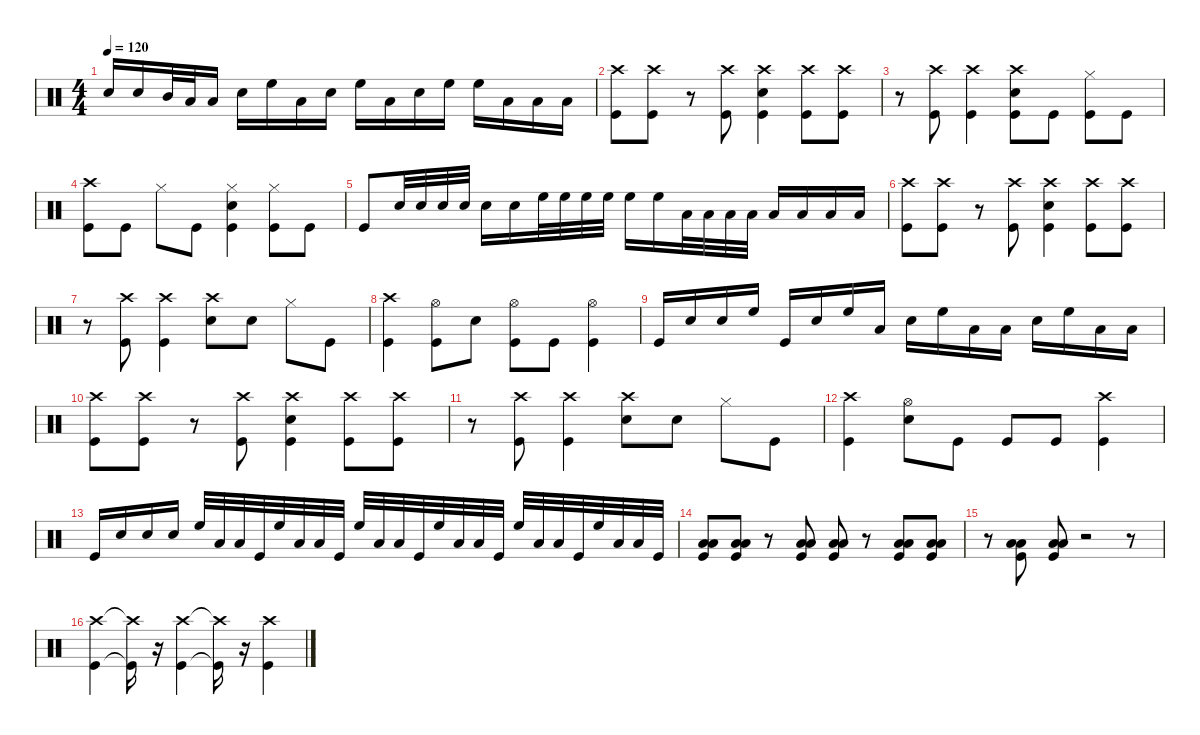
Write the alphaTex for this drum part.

\defaultSystemsLayout 4
\hideDynamics
\bracketExtendMode nobrackets
\singleTrackTrackNamePolicy hidden
\multiTrackTrackNamePolicy hidden
\firstSystemTrackNameMode fullname
\firstSystemTrackNameOrientation horizontal
\otherSystemsTrackNameOrientation horizontal
\track ("Drums" "drm.") {instrument percussion}
\staff {score}
\articulation defaults
\ts (4 4)
\tempo 120
\clef neutral
\ks c "Snare (hit) 2".16{dy f beam Up} "Snare (hit) 2".16{beam Up} "Mid Tom (hit)".32{beam Up} "Low Tom (hit)".32{beam Up} "Low Floor Tom (hit)".16{beam Up} "Snare (hit) 2".16{beam Down} "High Floor Tom (hit)".16{beam Down} "Low Tom (hit)".16{beam Down} "Snare (hit) 2".16{beam Down} "High Floor Tom (hit)".16{beam Down} "Low Tom (hit)".16{beam Down} "Snare (hit) 2".16{beam Down} "High Floor Tom (hit)".16{beam Down} "High Floor Tom (hit)".16{beam Down} "Low Tom (hit)".16{beam Down} "Low Floor Tom (hit)".16{beam Down} "Low Floor Tom (hit)".16{beam Down}
|
("Crash high (hit)" "Kick (hit)").8{beam Down} ("Crash high (hit)" "Kick (hit)").8{beam Down} r.8{beam Down} ("Crash high (hit)" "Kick (hit)").8{beam Down} ("Snare (hit) 2" "Crash high (hit)" "Kick (hit)").4{beam Down} ("Crash high (hit)" "Kick (hit)").8{beam Down} ("Crash high (hit)" "Kick (hit)").8{beam Down} |
r.8{beam Down} ("Crash high (hit)" "Kick (hit)").8{beam Down} ("Crash high (hit)" "Kick (hit)").4{beam Down} ("Snare (hit) 2" "Crash high (hit)" "Kick (hit)").8{beam Down} "Kick (hit)".8{beam Down} ("Hi-Hat (closed)" "Kick (hit)").8{beam Down} "Kick (hit)".8{beam Down} |
("Kick (hit)" "Crash high (hit)").8{beam Down} "Kick (hit)".8{beam Down} "Hi-Hat (closed)".8{beam Down} "Kick (hit)".8{beam Down} ("Kick (hit)" "Snare (hit) 2" "Hi-Hat (closed)").4{beam Down} ("Kick (hit)" "Hi-Hat (closed)").8{beam Down} "Kick (hit)".8{beam Down} |
"Kick (hit)".8{beam Up} "Snare (hit) 2".32{beam Up} "Snare (hit) 2".32{beam Up} "Snare (hit) 2".32{beam Up} "Snare (hit) 2".32{beam Up} "Snare (hit) 2".16{beam Down} "Snare (hit) 2".16{beam Down} "High Floor Tom (hit)".32{beam Down} "High Floor Tom (hit)".32{beam Down} "High Floor Tom (hit)".32{beam Down} "High Floor Tom (hit)".32{beam Down} "High Floor Tom (hit)".16{beam Down} "High Floor Tom (hit)".16{beam Down} "Low Tom (hit)".32{beam Down} "Low Tom (hit)".32{beam Down} "Low Tom (hit)".32{beam Down} "Low Tom (hit)".32{beam Down} "Low Tom (hit)".16{beam Up} "Low Tom (hit)".16{beam Up} "Low Floor Tom (hit)".16{beam Up} "Low Floor Tom (hit)".16{beam Up} |
("Crash high (hit)" "Kick (hit)").8{beam Down} ("Crash high (hit)" "Kick (hit)").8{beam Down} r.8{beam Down} ("Crash high (hit)" "Kick (hit)").8{beam Down} ("Snare (hit) 2" "Crash high (hit)" "Kick (hit)").4{beam Down} ("Crash high (hit)" "Kick (hit)").8{beam Down} ("Crash high (hit)" "Kick (hit)").8{beam Down} |
r.8{beam Down} ("Crash high (hit)" "Kick (hit)").8{beam Down} ("Crash high (hit)" "Kick (hit)").4{beam Down} ("Snare (hit) 2" "Crash high (hit)").8{beam Down} "Snare (hit) 2".8{beam Down} "Hi-Hat (closed)".8{beam Down} "Kick (hit)".8{beam Down} |
("Kick (hit)" "Crash high (hit)").4{beam Down} ("Kick (hit)" "Hi-Hat (open)").8{beam Down} "Snare (hit) 2".8{beam Down} ("Kick (hit)" "Hi-Hat (open)").8{beam Down} "Kick (hit)".8{beam Down} ("Hi-Hat (open)" "Kick (hit)").4{beam Down} |
"Kick (hit)".16{beam Up} "Snare (hit) 2".16{beam Up} "Snare (hit) 2".16{beam Up} "High Floor Tom (hit)".16{beam Up} "Kick (hit)".16{beam Up} "Snare (hit) 2".16{beam Up} "High Floor Tom (hit)".16{beam Up} "Low Tom (hit)".16{beam Up} "Snare (hit) 2".16{beam Down} "High Floor Tom (hit)".16{beam Down} "Low Tom (hit)".16{beam Down} "Low Floor Tom (hit)".16{beam Down} "Snare (hit) 2".16{beam Down} "High Floor Tom (hit)".16{beam Down} "Low Tom (hit)".16{beam Down} "Low Floor Tom (hit)".16{beam Down} |
("Kick (hit)" "Crash high (hit)").8{beam Down} ("Kick (hit)" "Crash high (hit)").8{beam Down} r.8{beam Down} ("Kick (hit)" "Crash high (hit)").8{beam Down} ("Kick (hit)" "Snare (hit) 2" "Crash high (hit)").4{beam Down} ("Kick (hit)" "Crash high (hit)").8{beam Down} ("Kick (hit)" "Crash high (hit)").8{beam Down} |
r.8{beam Down} ("Kick (hit)" "Crash high (hit)").8{beam Down} ("Kick (hit)" "Crash high (hit)").4{beam Down} ("Snare (hit) 2" "Crash high (hit)").8{beam Down} "Snare (hit) 2".8{beam Down} "Hi-Hat (closed)".8{beam Down} "Kick (hit)".8{beam Down} |
("Crash high (hit)" "Kick (hit)").4{beam Down} ("Snare (hit) 2" "Hi-Hat (open)").8{beam Down} "Kick (hit)".8{beam Down} "Kick (hit)".8{beam Up} "Kick (hit)".8{beam Up} ("Kick (hit)" "Crash high (hit)").4{beam Down} |
"Kick (hit)".16{beam Up} "Snare (hit) 2".16{beam Up} "Snare (hit) 2".16{beam Up} "Snare (hit) 2".16{beam Up} "High Floor Tom (hit)".32{beam Up} "Low Tom (hit)".32{beam Up} "Low Floor Tom (hit)".32{beam Up} "Kick (hit)".32{beam Up} "High Floor Tom (hit)".32{beam Up} "Low Tom (hit)".32{beam Up} "Low Floor Tom (hit)".32{beam Up} "Kick (hit)".32{beam Up} "High Floor Tom (hit)".32{beam Up} "Low Tom (hit)".32{beam Up} "Low Floor Tom (hit)".32{beam Up} "Kick (hit)".32{beam Up} "High Floor Tom (hit)".32{beam Up} "Low Tom (hit)".32{beam Up} "Low Floor Tom (hit)".32{beam Up} "Kick (hit)".32{beam Up} "High Floor Tom (hit)".32{beam Up} "Low Tom (hit)".32{beam Up} "Low Floor Tom (hit)".32{beam Up} "Kick (hit)".32{beam Up} "High Floor Tom (hit)".32{beam Up} "Low Tom (hit)".32{beam Up} "Low Floor Tom (hit)".32{beam Up} "Kick (hit)".32{beam Up} |
("Low Floor Tom (hit)" "Low Tom (hit)" "Kick (hit)").8{beam Up} ("Low Floor Tom (hit)" "Low Tom (hit)" "Kick (hit)").8{beam Up} r.8{beam Up} ("Low Floor Tom (hit)" "Low Tom (hit)" "Kick (hit)").8{beam Up} ("Low Floor Tom (hit)" "Low Tom (hit)" "Kick (hit)").8{beam Up} r.8{beam Up} ("Low Floor Tom (hit)" "Low Tom (hit)" "Kick (hit)").8{beam Up} ("Low Floor Tom (hit)" "Low Tom (hit)" "Kick (hit)").8{beam Up} |
r.8{beam Down} ("Low Floor Tom (hit)" "Low Tom (hit)" "Kick (hit)").8{beam Up} ("Low Floor Tom (hit)" "Low Tom (hit)" "Kick (hit)").8{beam Up} r.2{beam Up} r.8{beam Up} |
("Crash high (hit)" "Kick (hit)").4{beam Down} ("Crash high (hit)"{t} "Kick (hit)"{t}).16{beam Down} r.16{beam Down} ("Crash high (hit)" "Kick (hit)").4{beam Down} ("Crash high (hit)"{t} "Kick (hit)"{t}).16{beam Down} r.16{beam Down} ("Crash high (hit)" "Kick (hit)").4{beam Down}
